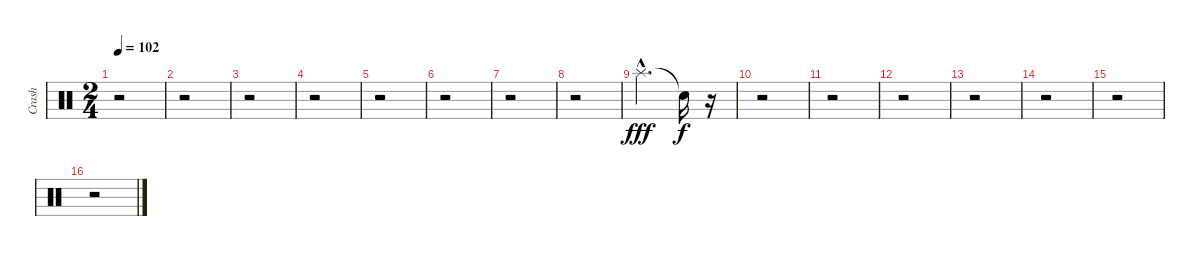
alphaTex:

\track ("Crash" "Crash") {instrument percussion}
\staff {score}
\articulation defaults
\ts (2 4)
\tempo 102
\clef neutral
\ks c
r.2{dy fff} |
r.2 |
r.2 |
r.2 |
r.2 |
r.2 |
r.2 |
r.2 |
"Splash (hit)"{hac}.4{d} "Snare (hit)"{t}.16{dy f} r.16 |
r.2 |
r.2 |
r.2 |
r.2 |
r.2 |
r.2 |
r.2
